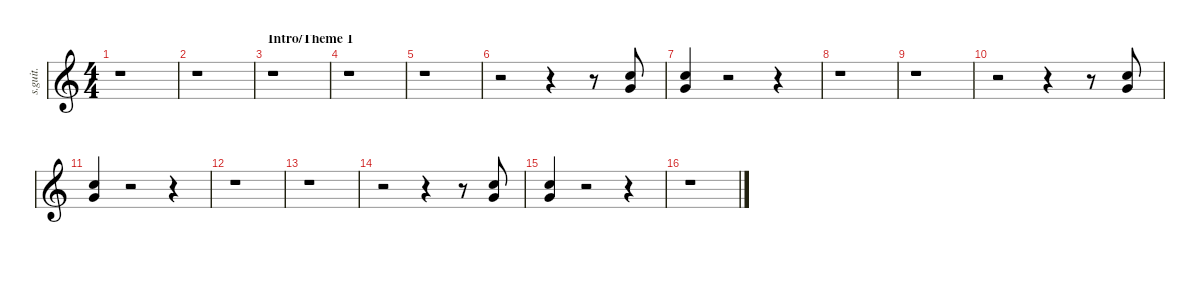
\defaultSystemsLayout 4
\hideDynamics
\bracketExtendMode nobrackets
\track ("Lars Ulrich - Drumzzz" "s.guit.") {instrument percussion}
\staff {score}
\articulation defaults
\ts (4 4)
\beaming (8 2 2 2 2)
\tempo (112 hide)
\clef g2
\ks c
r.1{dy f} |
r.1 |
\section ("" "Intro/Theme 1")
r.1 |
r.1 |
r.1 |
r.2 r.4 r.8 ("Very Low Tom (hit)" "Snare (hit) 2").8{lyrics (0 "") lyrics (1 "") lyrics (2 "") lyrics (3 "") lyrics (4 "")} |
("Very Low Tom (hit)" "Snare (hit) 2").4{lyrics (0 "") lyrics (1 "") lyrics (2 "") lyrics (3 "") lyrics (4 "")} r.2 r.4 |
r.1 |
r.1 |
r.2 r.4 r.8 ("Very Low Tom (hit)" "Snare (hit) 2").8{lyrics (0 "") lyrics (1 "") lyrics (2 "") lyrics (3 "") lyrics (4 "")} |
("Very Low Tom (hit)" "Snare (hit) 2").4{lyrics (0 "") lyrics (1 "") lyrics (2 "") lyrics (3 "") lyrics (4 "")} r.2 r.4 |
r.1 |
r.1 |
r.2 r.4 r.8 ("Very Low Tom (hit)" "Snare (hit) 2").8{lyrics (0 "") lyrics (1 "") lyrics (2 "") lyrics (3 "") lyrics (4 "")} |
("Very Low Tom (hit)" "Snare (hit) 2").4{lyrics (0 "") lyrics (1 "") lyrics (2 "") lyrics (3 "") lyrics (4 "")} r.2 r.4 |
r.1
